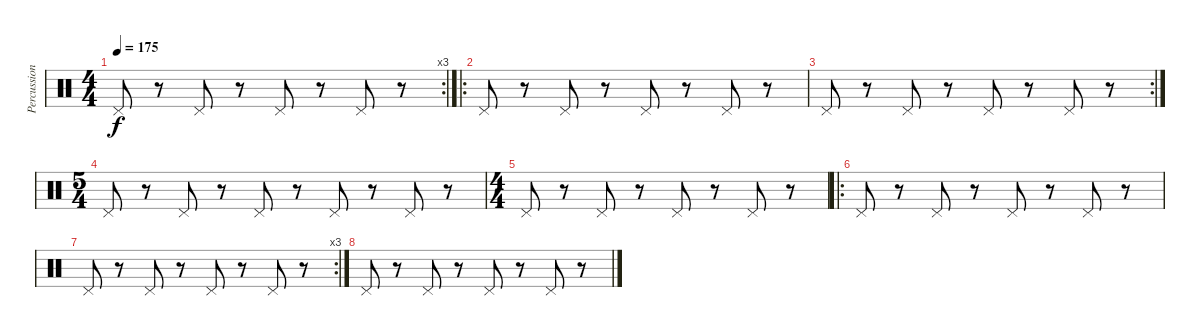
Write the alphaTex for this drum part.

\track ("Percussion" "Percussion") {instrument percussion}
\staff {score}
\articulation defaults
\rc 3
\ts (4 4)
\tempo 175
\clef neutral
\ks c "Pedal Hi-Hat (hit)".8{dy f}
r.8 "Pedal Hi-Hat (hit)".8 r.8 "Pedal Hi-Hat (hit)".8 r.8 "Pedal Hi-Hat (hit)".8 r.8 |
\ro "Pedal Hi-Hat (hit)".8
r.8 "Pedal Hi-Hat (hit)".8 r.8 "Pedal Hi-Hat (hit)".8 r.8 "Pedal Hi-Hat (hit)".8 r.8 |
\rc 2 "Pedal Hi-Hat (hit)".8
r.8 "Pedal Hi-Hat (hit)".8 r.8 "Pedal Hi-Hat (hit)".8 r.8 "Pedal Hi-Hat (hit)".8 r.8 |
\ts (5 4)
"Pedal Hi-Hat (hit)".8 r.8 "Pedal Hi-Hat (hit)".8 r.8 "Pedal Hi-Hat (hit)".8 r.8 "Pedal Hi-Hat (hit)".8 r.8 "Pedal Hi-Hat (hit)".8 r.8 |
\ts (4 4)
"Pedal Hi-Hat (hit)".8 r.8 "Pedal Hi-Hat (hit)".8 r.8 "Pedal Hi-Hat (hit)".8 r.8 "Pedal Hi-Hat (hit)".8 r.8 |
\ro "Pedal Hi-Hat (hit)".8
r.8 "Pedal Hi-Hat (hit)".8 r.8 "Pedal Hi-Hat (hit)".8 r.8 "Pedal Hi-Hat (hit)".8 r.8 |
\rc 3 "Pedal Hi-Hat (hit)".8
r.8 "Pedal Hi-Hat (hit)".8 r.8 "Pedal Hi-Hat (hit)".8 r.8 "Pedal Hi-Hat (hit)".8 r.8 |
"Pedal Hi-Hat (hit)".8 r.8 "Pedal Hi-Hat (hit)".8 r.8 "Pedal Hi-Hat (hit)".8 r.8 "Pedal Hi-Hat (hit)".8 r.8
